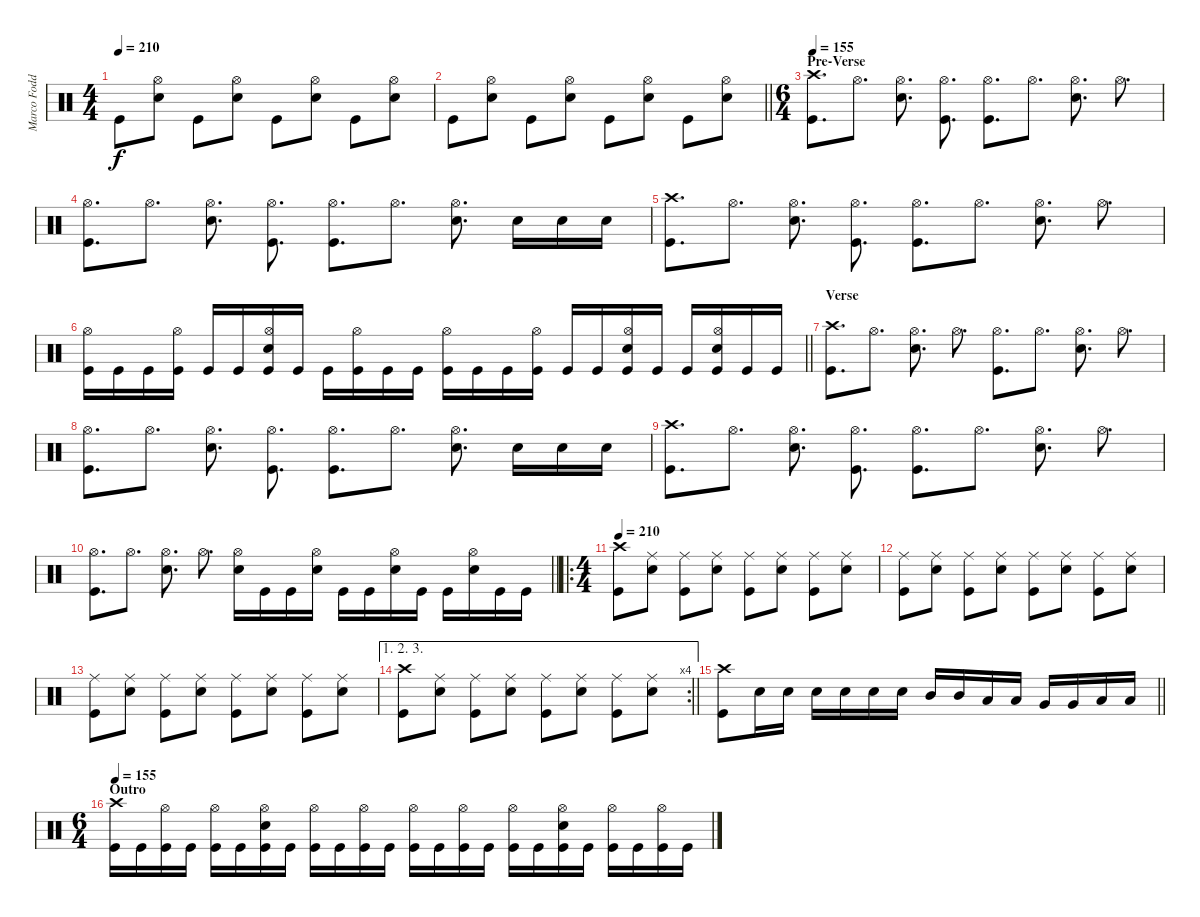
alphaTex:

\track ("Marco Foddis" "Marco Fodd") {instrument percussion}
\staff {score}
\articulation defaults
\ts (4 4)
\tempo 210
\clef neutral
\ks c "Kick (hit)".8{dy f}
("Hi-Hat (open)" "Snare (hit) 2").8 "Kick (hit)".8 ("Hi-Hat (open)" "Snare (hit) 2").8 "Kick (hit)".8 ("Hi-Hat (open)" "Snare (hit) 2").8 "Kick (hit)".8 ("Hi-Hat (open)" "Snare (hit) 2").8 |
\barLineRight lightlight "Kick (hit)".8
("Hi-Hat (open)" "Snare (hit) 2").8 "Kick (hit)".8 ("Hi-Hat (open)" "Snare (hit) 2").8 "Kick (hit)".8 ("Hi-Hat (open)" "Snare (hit) 2").8 "Kick (hit)".8 ("Hi-Hat (open)" "Snare (hit) 2").8 |
\ts (6 4)
\section ("" "Pre-Verse")
\tempo 155
("Crash high (hit)" "Kick (hit)").8{d} "Hi-Hat (open)".8{d} ("Hi-Hat (open)" "Snare (hit) 2").8{d} ("Hi-Hat (open)" "Kick (hit)").8{d} ("Hi-Hat (open)" "Kick (hit)").8{d} "Hi-Hat (open)".8{d} ("Hi-Hat (open)" "Snare (hit) 2").8{d} "Hi-Hat (open)".8{d} |
("Hi-Hat (open)" "Kick (hit)").8{d} "Hi-Hat (open)".8{d} ("Hi-Hat (open)" "Snare (hit) 2").8{d} ("Hi-Hat (open)" "Kick (hit)").8{d} ("Hi-Hat (open)" "Kick (hit)").8{d} "Hi-Hat (open)".8{d} ("Hi-Hat (open)" "Snare (hit) 2").8{d} "Snare (hit) 2".16 "Snare (hit) 2".16 "Snare (hit) 2".16 |
("Crash high (hit)" "Kick (hit)").8{d} "Hi-Hat (open)".8{d} ("Hi-Hat (open)" "Snare (hit) 2").8{d} ("Hi-Hat (open)" "Kick (hit)").8{d} ("Hi-Hat (open)" "Kick (hit)").8{d} "Hi-Hat (open)".8{d} ("Hi-Hat (open)" "Snare (hit) 2").8{d} "Hi-Hat (open)".8{d} |
\barLineRight lightlight
("Hi-Hat (open)" "Kick (hit)").16 "Kick (hit)".16 "Kick (hit)".16 ("Hi-Hat (open)" "Kick (hit)").16 "Kick (hit)".16 "Kick (hit)".16 ("Hi-Hat (open)" "Snare (hit) 2" "Kick (hit)").16 "Kick (hit)".16 "Kick (hit)".16 ("Hi-Hat (open)" "Kick (hit)").16 "Kick (hit)".16 "Kick (hit)".16 ("Hi-Hat (open)" "Kick (hit)").16 "Kick (hit)".16 "Kick (hit)".16 ("Hi-Hat (open)" "Kick (hit)").16 "Kick (hit)".16 "Kick (hit)".16 ("Hi-Hat (open)" "Snare (hit) 2" "Kick (hit)").16 "Kick (hit)".16 "Kick (hit)".16 ("Hi-Hat (open)" "Snare (hit) 2" "Kick (hit)").16 "Kick (hit)".16 "Kick (hit)".16 |
\section ("" "Verse")
("Crash high (hit)" "Kick (hit)").8{d} "Hi-Hat (open)".8{d} ("Hi-Hat (open)" "Snare (hit) 2").8{d} "Hi-Hat (open)".8{d} ("Hi-Hat (open)" "Kick (hit)").8{d} "Hi-Hat (open)".8{d} ("Hi-Hat (open)" "Snare (hit) 2").8{d} "Hi-Hat (open)".8{d} |
("Hi-Hat (open)" "Kick (hit)").8{d} "Hi-Hat (open)".8{d} ("Hi-Hat (open)" "Snare (hit) 2").8{d} ("Hi-Hat (open)" "Kick (hit)").8{d} ("Hi-Hat (open)" "Kick (hit)").8{d} "Hi-Hat (open)".8{d} ("Hi-Hat (open)" "Snare (hit) 2").8{d} "Snare (hit) 2".16 "Snare (hit) 2".16 "Snare (hit) 2".16 |
("Crash high (hit)" "Kick (hit)").8{d} "Hi-Hat (open)".8{d} ("Hi-Hat (open)" "Snare (hit) 2").8{d} ("Hi-Hat (open)" "Kick (hit)").8{d} ("Hi-Hat (open)" "Kick (hit)").8{d} "Hi-Hat (open)".8{d} ("Hi-Hat (open)" "Snare (hit) 2").8{d} "Hi-Hat (open)".8{d} |
\barLineRight lightlight
("Hi-Hat (open)" "Kick (hit)").8{d} "Hi-Hat (open)".8{d} ("Hi-Hat (open)" "Snare (hit) 2").8{d} "Hi-Hat (open)".8{d} ("Hi-Hat (open)" "Snare (hit) 2").16 "Kick (hit)".16 "Kick (hit)".16 ("Hi-Hat (open)" "Snare (hit) 2").16 "Kick (hit)".16 "Kick (hit)".16 ("Hi-Hat (open)" "Snare (hit) 2").16 "Kick (hit)".16 "Kick (hit)".16 ("Hi-Hat (open)" "Snare (hit) 2").16 "Kick (hit)".16 "Kick (hit)".16 |
\ro
\ts (4 4)
\tempo 210
("Crash high (hit)" "Kick (hit)").8 ("Ride (middle)" "Snare (hit) 2").8 ("Ride (middle)" "Kick (hit)").8 ("Ride (middle)" "Snare (hit) 2").8 ("Ride (middle)" "Kick (hit)").8 ("Ride (middle)" "Snare (hit) 2").8 ("Ride (middle)" "Kick (hit)").8 ("Ride (middle)" "Snare (hit) 2").8 |
("Ride (middle)" "Kick (hit)").8 ("Ride (middle)" "Snare (hit) 2").8 ("Ride (middle)" "Kick (hit)").8 ("Ride (middle)" "Snare (hit) 2").8 ("Ride (middle)" "Kick (hit)").8 ("Ride (middle)" "Snare (hit) 2").8 ("Ride (middle)" "Kick (hit)").8 ("Ride (middle)" "Snare (hit) 2").8 |
("Ride (middle)" "Kick (hit)").8 ("Ride (middle)" "Snare (hit) 2").8 ("Ride (middle)" "Kick (hit)").8 ("Ride (middle)" "Snare (hit) 2").8 ("Ride (middle)" "Kick (hit)").8 ("Ride (middle)" "Snare (hit) 2").8 ("Ride (middle)" "Kick (hit)").8 ("Ride (middle)" "Snare (hit) 2").8 |
\ae (1 2 3)
\rc 4
\barLineRight lightlight
("Crash high (hit)" "Kick (hit)").8 ("Ride (middle)" "Snare (hit) 2").8 ("Ride (middle)" "Kick (hit)").8 ("Ride (middle)" "Snare (hit) 2").8 ("Ride (middle)" "Kick (hit)").8 ("Ride (middle)" "Snare (hit) 2").8 ("Ride (middle)" "Kick (hit)").8 ("Ride (middle)" "Snare (hit) 2").8 |
\barLineRight lightlight
("Crash high (hit)" "Kick (hit)").8 "Snare (hit) 2".16 "Snare (hit) 2".16 "Snare (hit) 2".16 "Snare (hit) 2".16 "Snare (hit) 2".16 "Snare (hit) 2".16 "Mid Tom (hit)".16 "Mid Tom (hit)".16 "Low Tom (hit)".16 "Low Tom (hit)".16 "Very Low Tom (hit)".16 "Very Low Tom (hit)".16 "Low Floor Tom (hit)".16 "Low Floor Tom (hit)".16 |
\ts (6 4)
\section ("" "Outro")
\tempo 155
("Crash high (hit)" "Kick (hit)").16 "Kick (hit)".16 ("Hi-Hat (open)" "Kick (hit)").16 "Kick (hit)".16 ("Hi-Hat (open)" "Kick (hit)").16 "Kick (hit)".16 ("Hi-Hat (open)" "Snare (hit) 2" "Kick (hit)").16 "Kick (hit)".16 ("Hi-Hat (open)" "Kick (hit)").16 "Kick (hit)".16 ("Hi-Hat (open)" "Kick (hit)").16 "Kick (hit)".16 ("Hi-Hat (open)" "Kick (hit)").16 "Kick (hit)".16 ("Hi-Hat (open)" "Kick (hit)").16 "Kick (hit)".16 ("Hi-Hat (open)" "Kick (hit)").16 "Kick (hit)".16 ("Hi-Hat (open)" "Snare (hit) 2" "Kick (hit)").16 "Kick (hit)".16 ("Hi-Hat (open)" "Kick (hit)").16 "Kick (hit)".16 ("Hi-Hat (open)" "Kick (hit)").16 "Kick (hit)".16
